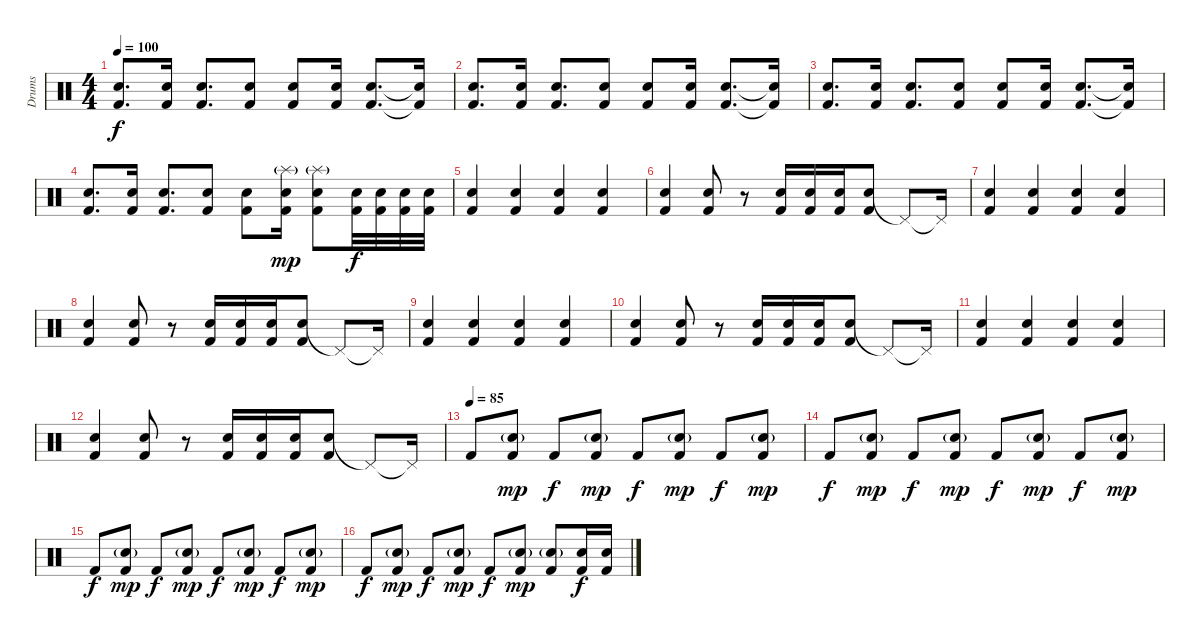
\track ("Drums" "Drums") {instrument percussion}
\staff {score}
\articulation defaults
\ts (4 4)
\tempo 100
\clef neutral
\ks c
("Snare (hit) 2" "Kick (hit) 2").8{d dy f} ("Snare (hit) 2" "Kick (hit) 2").16 ("Snare (hit) 2" "Kick (hit) 2").8{d} ("Snare (hit) 2" "Kick (hit) 2").8 ("Snare (hit) 2" "Kick (hit) 2").8 ("Snare (hit) 2" "Kick (hit) 2").16 ("Snare (hit) 2" "Kick (hit) 2").8{d} ("Snare (hit) 2"{t} "Kick (hit) 2"{t}).16 |
("Snare (hit) 2" "Kick (hit) 2").8{d} ("Snare (hit) 2" "Kick (hit) 2").16 ("Snare (hit) 2" "Kick (hit) 2").8{d} ("Snare (hit) 2" "Kick (hit) 2").8 ("Snare (hit) 2" "Kick (hit) 2").8 ("Snare (hit) 2" "Kick (hit) 2").16 ("Snare (hit) 2" "Kick (hit) 2").8{d} ("Snare (hit) 2"{t} "Kick (hit) 2"{t}).16 |
("Snare (hit) 2" "Kick (hit) 2").8{d} ("Snare (hit) 2" "Kick (hit) 2").16 ("Snare (hit) 2" "Kick (hit) 2").8{d} ("Snare (hit) 2" "Kick (hit) 2").8 ("Snare (hit) 2" "Kick (hit) 2").8 ("Snare (hit) 2" "Kick (hit) 2").16 ("Snare (hit) 2" "Kick (hit) 2").8{d} ("Snare (hit) 2"{t} "Kick (hit) 2"{t}).16 |
("Snare (hit) 2" "Kick (hit) 2").8{d} ("Snare (hit) 2" "Kick (hit) 2").16 ("Snare (hit) 2" "Kick (hit) 2").8{d} ("Snare (hit) 2" "Kick (hit) 2").8 ("Snare (hit) 2" "Kick (hit) 2").8 ("Splash (hit)"{g} "Snare (hit) 2" "Kick (hit) 2").16{dy mp} ("Splash (hit)"{g} "Snare (hit) 2" "Kick (hit) 2").8 ("Snare (hit) 2" "Kick (hit) 2").32{dy f} ("Snare (hit) 2" "Kick (hit) 2").32 ("Snare (hit) 2" "Kick (hit) 2").32 ("Snare (hit) 2" "Kick (hit) 2").32 |
("Snare (hit) 2" "Kick (hit) 2").4 ("Snare (hit) 2" "Kick (hit) 2").4 ("Snare (hit) 2" "Kick (hit) 2").4 ("Snare (hit) 2" "Kick (hit) 2").4 |
("Snare (hit) 2" "Kick (hit) 2").4 ("Snare (hit) 2" "Kick (hit) 2").8 r.8 ("Snare (hit) 2" "Kick (hit) 2").16 ("Snare (hit) 2" "Kick (hit) 2").16 ("Snare (hit) 2" "Kick (hit) 2").16 ("Snare (hit) 2" "Kick (hit) 2").8 "Pedal Hi-Hat (hit)"{t}.8 "Pedal Hi-Hat (hit)"{t}.16 |
("Snare (hit) 2" "Kick (hit) 2").4 ("Snare (hit) 2" "Kick (hit) 2").4 ("Snare (hit) 2" "Kick (hit) 2").4 ("Snare (hit) 2" "Kick (hit) 2").4 |
("Snare (hit) 2" "Kick (hit) 2").4 ("Snare (hit) 2" "Kick (hit) 2").8 r.8 ("Snare (hit) 2" "Kick (hit) 2").16 ("Snare (hit) 2" "Kick (hit) 2").16 ("Snare (hit) 2" "Kick (hit) 2").16 ("Snare (hit) 2" "Kick (hit) 2").8 "Pedal Hi-Hat (hit)"{t}.8 "Pedal Hi-Hat (hit)"{t}.16 |
("Snare (hit) 2" "Kick (hit) 2").4 ("Snare (hit) 2" "Kick (hit) 2").4 ("Snare (hit) 2" "Kick (hit) 2").4 ("Snare (hit) 2" "Kick (hit) 2").4 |
("Snare (hit) 2" "Kick (hit) 2").4 ("Snare (hit) 2" "Kick (hit) 2").8 r.8 ("Snare (hit) 2" "Kick (hit) 2").16 ("Snare (hit) 2" "Kick (hit) 2").16 ("Snare (hit) 2" "Kick (hit) 2").16 ("Snare (hit) 2" "Kick (hit) 2").8 "Pedal Hi-Hat (hit)"{t}.8 "Pedal Hi-Hat (hit)"{t}.16 |
("Snare (hit) 2" "Kick (hit) 2").4 ("Snare (hit) 2" "Kick (hit) 2").4 ("Snare (hit) 2" "Kick (hit) 2").4 ("Snare (hit) 2" "Kick (hit) 2").4 |
("Snare (hit) 2" "Kick (hit) 2").4 ("Snare (hit) 2" "Kick (hit) 2").8 r.8 ("Snare (hit) 2" "Kick (hit) 2").16 ("Snare (hit) 2" "Kick (hit) 2").16 ("Snare (hit) 2" "Kick (hit) 2").16 ("Snare (hit) 2" "Kick (hit) 2").8 "Pedal Hi-Hat (hit)"{t}.8 "Pedal Hi-Hat (hit)"{t}.16 |
\tempo (85)
"Kick (hit) 2".8 ("Snare (hit) 2"{g} "Kick (hit) 2").8{dy mp} "Kick (hit) 2".8{dy f} ("Snare (hit) 2"{g} "Kick (hit) 2").8{dy mp} "Kick (hit) 2".8{dy f} ("Snare (hit) 2"{g} "Kick (hit) 2").8{dy mp} "Kick (hit) 2".8{dy f} ("Snare (hit) 2"{g} "Kick (hit) 2").8{dy mp} |
"Kick (hit) 2".8{dy f} ("Snare (hit) 2"{g} "Kick (hit) 2").8{dy mp} "Kick (hit) 2".8{dy f} ("Snare (hit) 2"{g} "Kick (hit) 2").8{dy mp} "Kick (hit) 2".8{dy f} ("Snare (hit) 2"{g} "Kick (hit) 2").8{dy mp} "Kick (hit) 2".8{dy f} ("Snare (hit) 2"{g} "Kick (hit) 2").8{dy mp} |
"Kick (hit) 2".8{dy f} ("Snare (hit) 2"{g} "Kick (hit) 2").8{dy mp} "Kick (hit) 2".8{dy f} ("Snare (hit) 2"{g} "Kick (hit) 2").8{dy mp} "Kick (hit) 2".8{dy f} ("Snare (hit) 2"{g} "Kick (hit) 2").8{dy mp} "Kick (hit) 2".8{dy f} ("Snare (hit) 2"{g} "Kick (hit) 2").8{dy mp} |
"Kick (hit) 2".8{dy f} ("Snare (hit) 2"{g} "Kick (hit) 2").8{dy mp} "Kick (hit) 2".8{dy f} ("Snare (hit) 2"{g} "Kick (hit) 2").8{dy mp} "Kick (hit) 2".8{dy f} ("Snare (hit) 2"{g} "Kick (hit) 2").8{dy mp} ("Snare (hit) 2"{g} "Kick (hit) 2").8 ("Snare (hit) 2" "Kick (hit) 2").16{dy f} ("Snare (hit) 2" "Kick (hit) 2").16
